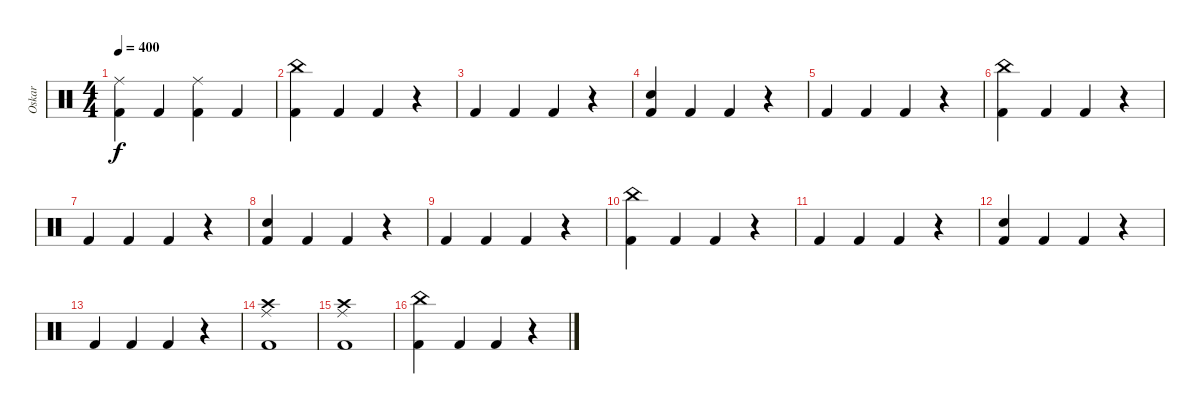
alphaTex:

\track ("Oskar" "Oskar") {instrument percussion}
\staff {score}
\articulation defaults
\ts (4 4)
\tempo 400
\clef neutral
\ks c
("Ride (middle)" "Kick (hit) 2").4{dy f} "Kick (hit) 2".4 ("Ride (middle)" "Kick (hit) 2").4 "Kick (hit) 2".4 |
("China (hit)" "Kick (hit) 2").4 "Kick (hit) 2".4 "Kick (hit) 2".4 r.4 |
"Kick (hit) 2".4 "Kick (hit) 2".4 "Kick (hit) 2".4 r.4 |
("Electric Snare (hit)" "Kick (hit) 2").4 "Kick (hit) 2".4 "Kick (hit) 2".4 r.4 |
"Kick (hit) 2".4 "Kick (hit) 2".4 "Kick (hit) 2".4 r.4 |
("China (hit)" "Kick (hit) 2").4 "Kick (hit) 2".4 "Kick (hit) 2".4 r.4 |
"Kick (hit) 2".4 "Kick (hit) 2".4 "Kick (hit) 2".4 r.4 |
("Electric Snare (hit)" "Kick (hit) 2").4 "Kick (hit) 2".4 "Kick (hit) 2".4 r.4 |
"Kick (hit) 2".4 "Kick (hit) 2".4 "Kick (hit) 2".4 r.4 |
("China (hit)" "Kick (hit) 2").4 "Kick (hit) 2".4 "Kick (hit) 2".4 r.4 |
"Kick (hit) 2".4 "Kick (hit) 2".4 "Kick (hit) 2".4 r.4 |
("Electric Snare (hit)" "Kick (hit) 2").4 "Kick (hit) 2".4 "Kick (hit) 2".4 r.4 |
"Kick (hit) 2".4 "Kick (hit) 2".4 "Kick (hit) 2".4 r.4 |
("Crash high (hit)" "Ride (middle)" "Kick (hit) 2").1 |
("Crash high (hit)" "Ride (middle)" "Kick (hit) 2").1 |
("China (hit)" "Kick (hit) 2").4 "Kick (hit) 2".4 "Kick (hit) 2".4 r.4
